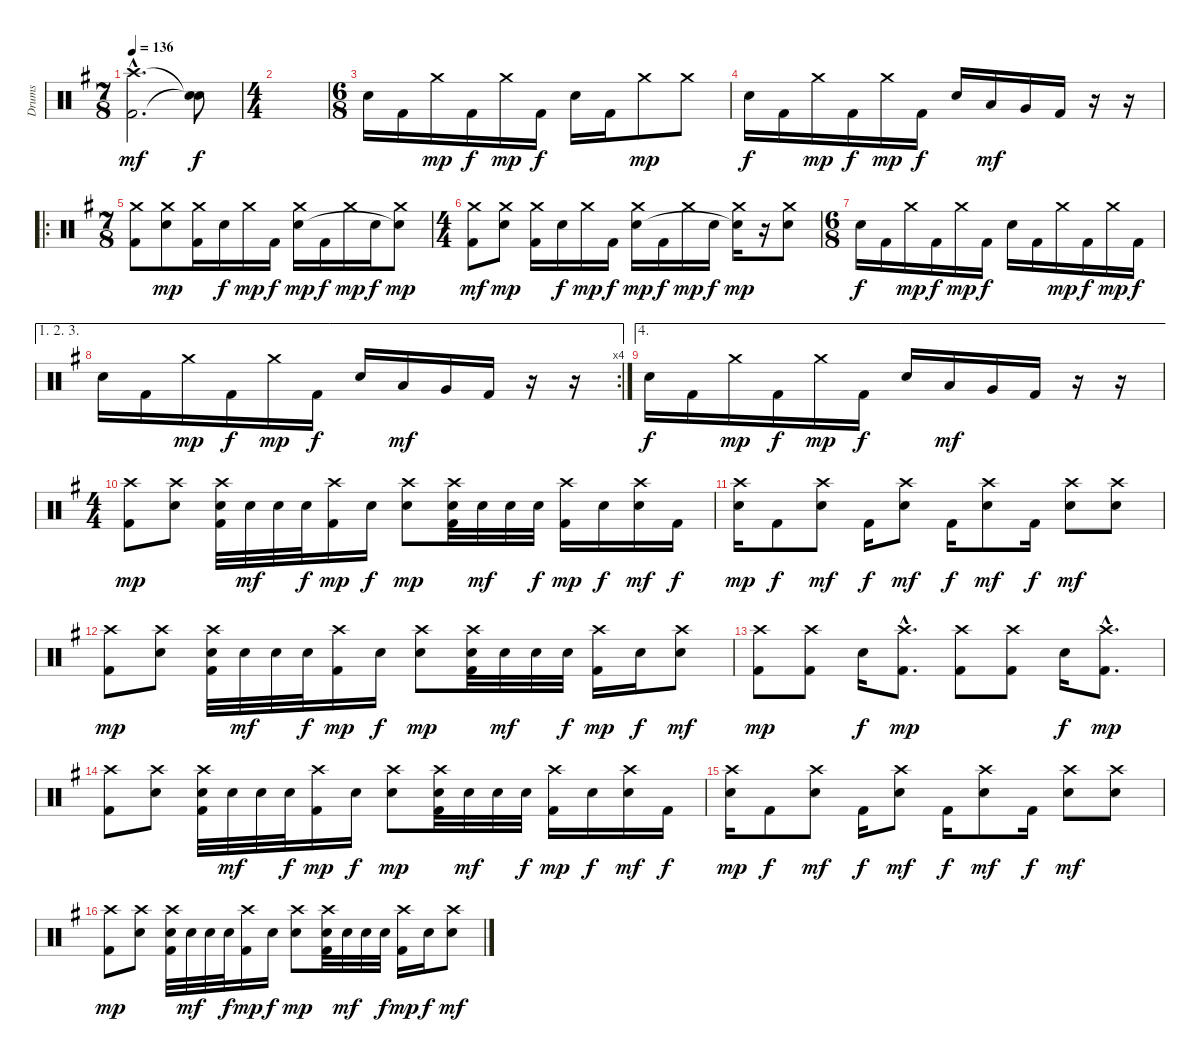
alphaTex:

\track ("Drums" "Drums") {instrument percussion}
\staff {score}
\articulation defaults
\ts (7 8)
\tempo 136
\clef neutral
\ks g
("Crash high (hit)"{hac} "Kick (hit) 2"{hac}).2{d dy mf} ("Snare (hit)"{t} "Snare (hit)"{t}).8{dy f} |
\ts (4 4)
|
\ts (6 8)
"Snare (hit) 2".16 "Kick (hit) 2".16 "Crash medium (hit)".16{dy mp} "Kick (hit) 2".16{dy f} "Crash medium (hit)".16{dy mp} "Kick (hit) 2".16{dy f} "Snare (hit) 2".16 "Kick (hit) 2".16 "Crash medium (hit)".8{dy mp} "Crash medium (hit)".8 |
"Snare (hit) 2".16{dy f} "Kick (hit) 2".16 "Crash medium (hit)".16{dy mp} "Kick (hit) 2".16{dy f} "Crash medium (hit)".16{dy mp} "Kick (hit) 2".16{dy f} "Snare (hit) 2".16 "Low Tom (hit)".16{dy mf} "Very Low Tom (hit)".16 "Kick (hit) 2".16 r.16 r.16 |
\ro
\ts (7 8)
("Crash medium (hit)" "Kick (hit) 2").8 ("Crash medium (hit)" "Snare (hit) 2").8{dy mp} ("Crash medium (hit)" "Kick (hit) 2").16 "Snare (hit) 2".16{dy f} "Crash medium (hit)".16{dy mp} "Kick (hit) 2".16{dy f} ("Crash medium (hit)" "Snare (hit) 2").16{dy mp} "Kick (hit) 2".16{dy f} "Crash medium (hit)".16{dy mp} "Snare (hit) 2".16{dy f} ("Crash medium (hit)" "Snare (hit)"{t}).8{dy mp} |
\ts (4 4)
("Crash medium (hit)" "Kick (hit) 2").8{dy mf} ("Crash medium (hit)" "Snare (hit) 2").8{dy mp} ("Crash medium (hit)" "Kick (hit) 2").16 "Snare (hit) 2".16{dy f} "Crash medium (hit)".16{dy mp} "Kick (hit) 2".16{dy f} ("Crash medium (hit)" "Snare (hit) 2").16{dy mp} "Kick (hit) 2".16{dy f} "Crash medium (hit)".16{dy mp} "Snare (hit) 2".16{dy f} ("Crash medium (hit)" "Snare (hit)"{t}).16{dy mp} r.16 ("Crash medium (hit)" "Snare (hit) 2").8 |
\ts (6 8)
"Snare (hit) 2".16{dy f} "Kick (hit) 2".16 "Crash medium (hit)".16{dy mp} "Kick (hit) 2".16{dy f} "Crash medium (hit)".16{dy mp} "Kick (hit) 2".16{dy f} "Snare (hit) 2".16 "Kick (hit) 2".16 "Crash medium (hit)".16{dy mp} "Kick (hit) 2".16{dy f} "Crash medium (hit)".16{dy mp} "Kick (hit) 2".16{dy f} |
\ae (1 2 3)
\rc 4 "Snare (hit) 2".16 "Kick (hit) 2".16 "Crash medium (hit)".16{dy mp} "Kick (hit) 2".16{dy f} "Crash medium (hit)".16{dy mp} "Kick (hit) 2".16{dy f} "Snare (hit) 2".16 "Low Tom (hit)".16{dy mf} "Very Low Tom (hit)".16 "Kick (hit) 2".16
r.16 r.16 |
\ae 4 "Snare (hit) 2".16{dy f} "Kick (hit) 2".16 "Crash medium (hit)".16{dy mp} "Kick (hit) 2".16{dy f} "Crash medium (hit)".16{dy mp} "Kick (hit) 2".16{dy f} "Snare (hit) 2".16 "Low Tom (hit)".16{dy mf} "Very Low Tom (hit)".16 "Kick (hit) 2".16
r.16 r.16 |
\ts (4 4)
("Crash high (hit)" "Kick (hit) 2").8{dy mp} ("Crash high (hit)" "Snare (hit) 2").8 ("Crash high (hit)" "Snare (hit) 2" "Kick (hit) 2").32 "Snare (hit) 2".32{dy mf} "Snare (hit) 2".32 "Snare (hit) 2".32{dy f} ("Crash high (hit)" "Kick (hit) 2").16{dy mp} "Snare (hit) 2".16{dy f} ("Crash high (hit)" "Snare (hit) 2").8{dy mp} ("Crash high (hit)" "Snare (hit) 2" "Kick (hit) 2").32 "Snare (hit) 2".32{dy mf} "Snare (hit) 2".32 "Snare (hit) 2".32{dy f} ("Crash high (hit)" "Kick (hit) 2").16{dy mp} "Snare (hit) 2".16{dy f} ("Crash high (hit)" "Snare (hit) 2").16{dy mf} "Kick (hit) 2".16{dy f} |
("Crash high (hit)" "Snare (hit) 2").16{dy mp} "Kick (hit) 2".8{dy f} ("Crash high (hit)" "Snare (hit) 2").8{dy mf} "Kick (hit) 2".16{dy f} ("Crash high (hit)" "Snare (hit) 2").8{dy mf} "Kick (hit) 2".16{dy f} ("Crash high (hit)" "Snare (hit) 2").8{dy mf} "Kick (hit) 2".16{dy f} ("Crash high (hit)" "Snare (hit) 2").8{dy mf} ("Crash high (hit)" "Snare (hit) 2").8 |
("Crash high (hit)" "Kick (hit) 2").8{dy mp} ("Crash high (hit)" "Snare (hit) 2").8 ("Crash high (hit)" "Snare (hit) 2" "Kick (hit) 2").32 "Snare (hit) 2".32{dy mf} "Snare (hit) 2".32 "Snare (hit) 2".32{dy f} ("Crash high (hit)" "Kick (hit) 2").16{dy mp} "Snare (hit) 2".16{dy f} ("Crash high (hit)" "Snare (hit) 2").8{dy mp} ("Crash high (hit)" "Snare (hit) 2" "Kick (hit) 2").32 "Snare (hit) 2".32{dy mf} "Snare (hit) 2".32 "Snare (hit) 2".32{dy f} ("Crash high (hit)" "Kick (hit) 2").16{dy mp} "Snare (hit) 2".16{dy f} ("Crash high (hit)" "Snare (hit) 2").8{dy mf} |
("Crash high (hit)" "Kick (hit) 2").8{dy mp} ("Crash high (hit)" "Kick (hit) 2").8 "Snare (hit) 2".16{dy f} ("Crash high (hit)"{hac} "Kick (hit) 2"{hac}).8{d dy mp} ("Crash high (hit)" "Kick (hit) 2").8 ("Crash high (hit)" "Kick (hit) 2").8 "Snare (hit) 2".16{dy f} ("Crash high (hit)"{hac} "Kick (hit) 2"{hac}).8{d dy mp} |
("Crash high (hit)" "Kick (hit) 2").8 ("Crash high (hit)" "Snare (hit) 2").8 ("Crash high (hit)" "Snare (hit) 2" "Kick (hit) 2").32 "Snare (hit) 2".32{dy mf} "Snare (hit) 2".32 "Snare (hit) 2".32{dy f} ("Crash high (hit)" "Kick (hit) 2").16{dy mp} "Snare (hit) 2".16{dy f} ("Crash high (hit)" "Snare (hit) 2").8{dy mp} ("Crash high (hit)" "Snare (hit) 2" "Kick (hit) 2").32 "Snare (hit) 2".32{dy mf} "Snare (hit) 2".32 "Snare (hit) 2".32{dy f} ("Crash high (hit)" "Kick (hit) 2").16{dy mp} "Snare (hit) 2".16{dy f} ("Crash high (hit)" "Snare (hit) 2").16{dy mf} "Kick (hit) 2".16{dy f} |
("Crash high (hit)" "Snare (hit) 2").16{dy mp} "Kick (hit) 2".8{dy f} ("Crash high (hit)" "Snare (hit) 2").8{dy mf} "Kick (hit) 2".16{dy f} ("Crash high (hit)" "Snare (hit) 2").8{dy mf} "Kick (hit) 2".16{dy f} ("Crash high (hit)" "Snare (hit) 2").8{dy mf} "Kick (hit) 2".16{dy f} ("Crash high (hit)" "Snare (hit) 2").8{dy mf} ("Crash high (hit)" "Snare (hit) 2").8 |
("Crash high (hit)" "Kick (hit) 2").8{dy mp} ("Crash high (hit)" "Snare (hit) 2").8 ("Crash high (hit)" "Snare (hit) 2" "Kick (hit) 2").32 "Snare (hit) 2".32{dy mf} "Snare (hit) 2".32 "Snare (hit) 2".32{dy f} ("Crash high (hit)" "Kick (hit) 2").16{dy mp} "Snare (hit) 2".16{dy f} ("Crash high (hit)" "Snare (hit) 2").8{dy mp} ("Crash high (hit)" "Snare (hit) 2" "Kick (hit) 2").32 "Snare (hit) 2".32{dy mf} "Snare (hit) 2".32 "Snare (hit) 2".32{dy f} ("Crash high (hit)" "Kick (hit) 2").16{dy mp} "Snare (hit) 2".16{dy f} ("Crash high (hit)" "Snare (hit) 2").8{dy mf}
